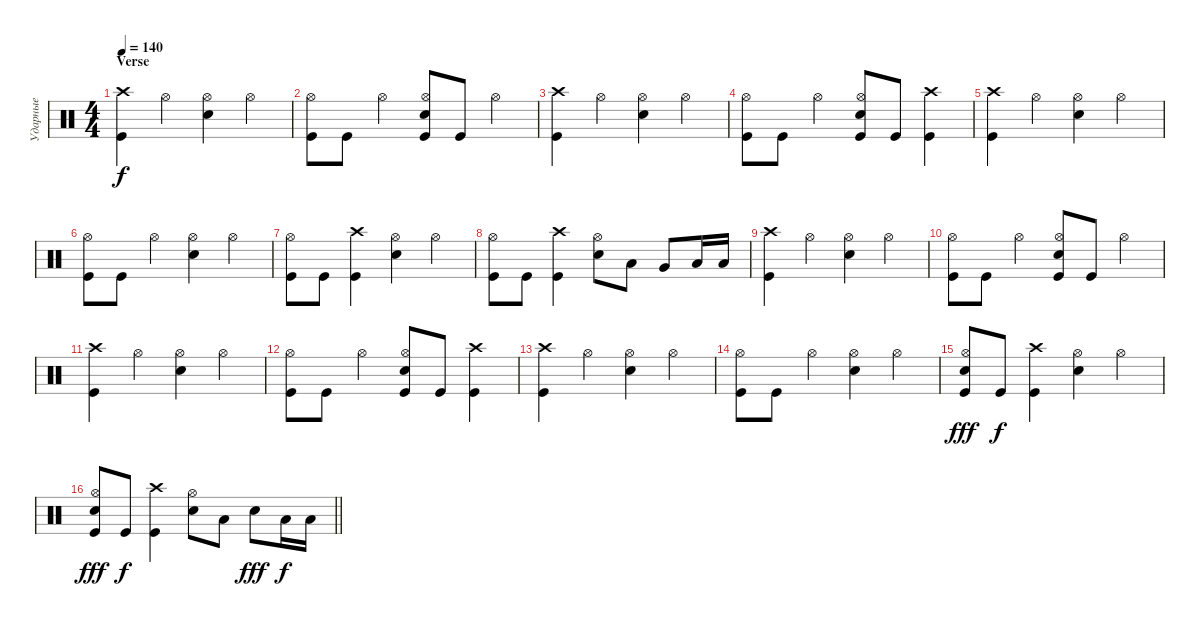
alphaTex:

\track ("Ударные" "Ударные") {instrument percussion}
\staff {score}
\articulation defaults
\ts (4 4)
\section ("" "Verse")
\tempo 140
\clef neutral
\ks c
("Crash high (hit)" "Kick (hit)").4{dy f} "Hi-Hat (open)".4 ("Hi-Hat (open)" "Snare (hit) 2").4 "Hi-Hat (open)".4 |
("Hi-Hat (open)" "Kick (hit)").8 "Kick (hit)".8 "Hi-Hat (open)".4 ("Snare (hit) 2" "Kick (hit)" "Hi-Hat (open)").8 "Kick (hit)".8 "Hi-Hat (open)".4 |
("Crash high (hit)" "Kick (hit)").4 "Hi-Hat (open)".4 ("Hi-Hat (open)" "Snare (hit) 2").4 "Hi-Hat (open)".4 |
("Hi-Hat (open)" "Kick (hit)").8 "Kick (hit)".8 "Hi-Hat (open)".4 ("Snare (hit) 2" "Kick (hit)" "Hi-Hat (open)").8 "Kick (hit)".8 ("Crash high (hit)" "Kick (hit)").4 |
("Crash high (hit)" "Kick (hit)").4 "Hi-Hat (open)".4 ("Hi-Hat (open)" "Snare (hit) 2").4 "Hi-Hat (open)".4 |
("Hi-Hat (open)" "Kick (hit)").8 "Kick (hit)".8 "Hi-Hat (open)".4 ("Snare (hit) 2" "Hi-Hat (open)").4 "Hi-Hat (open)".4 |
("Kick (hit)" "Hi-Hat (open)").8 "Kick (hit)".8 ("Kick (hit)" "Crash high (hit)").4 ("Snare (hit) 2" "Hi-Hat (open)").4 "Hi-Hat (open)".4 |
("Kick (hit)" "Hi-Hat (open)").8 "Kick (hit)".8 ("Kick (hit)" "Crash high (hit)").4 ("Snare (hit) 2" "Hi-Hat (open)").8 "Low Tom (hit)".8 "Very Low Tom (hit)".8 "Low Floor Tom (hit)".16 "Low Floor Tom (hit)".16 |
("Crash high (hit)" "Kick (hit)").4 "Hi-Hat (open)".4 ("Hi-Hat (open)" "Snare (hit) 2").4 "Hi-Hat (open)".4 |
("Hi-Hat (open)" "Kick (hit)").8 "Kick (hit)".8 "Hi-Hat (open)".4 ("Snare (hit) 2" "Kick (hit)" "Hi-Hat (open)").8 "Kick (hit)".8 "Hi-Hat (open)".4 |
("Crash high (hit)" "Kick (hit)").4 "Hi-Hat (open)".4 ("Hi-Hat (open)" "Snare (hit) 2").4 "Hi-Hat (open)".4 |
("Hi-Hat (open)" "Kick (hit)").8 "Kick (hit)".8 "Hi-Hat (open)".4 ("Snare (hit) 2" "Kick (hit)" "Hi-Hat (open)").8 "Kick (hit)".8 ("Crash high (hit)" "Kick (hit)").4 |
("Crash high (hit)" "Kick (hit)").4 "Hi-Hat (open)".4 ("Hi-Hat (open)" "Snare (hit) 2").4 "Hi-Hat (open)".4 |
("Hi-Hat (open)" "Kick (hit)").8 "Kick (hit)".8 "Hi-Hat (open)".4 ("Snare (hit) 2" "Hi-Hat (open)").4 "Hi-Hat (open)".4 |
("Kick (hit)" "Hi-Hat (open)" "Snare (hit) 2").8{dy fff} "Kick (hit)".8{dy f} ("Kick (hit)" "Crash high (hit)").4 ("Snare (hit) 2" "Hi-Hat (open)").4 "Hi-Hat (open)".4 |
\barLineRight lightlight
("Kick (hit)" "Hi-Hat (open)" "Snare (hit) 2").8{dy fff} "Kick (hit)".8{dy f} ("Kick (hit)" "Crash high (hit)").4 ("Snare (hit) 2" "Hi-Hat (open)").8 "Low Tom (hit)".8 "Snare (hit) 2".8{dy fff} "Low Floor Tom (hit)".16{dy f} "Low Floor Tom (hit)".16
